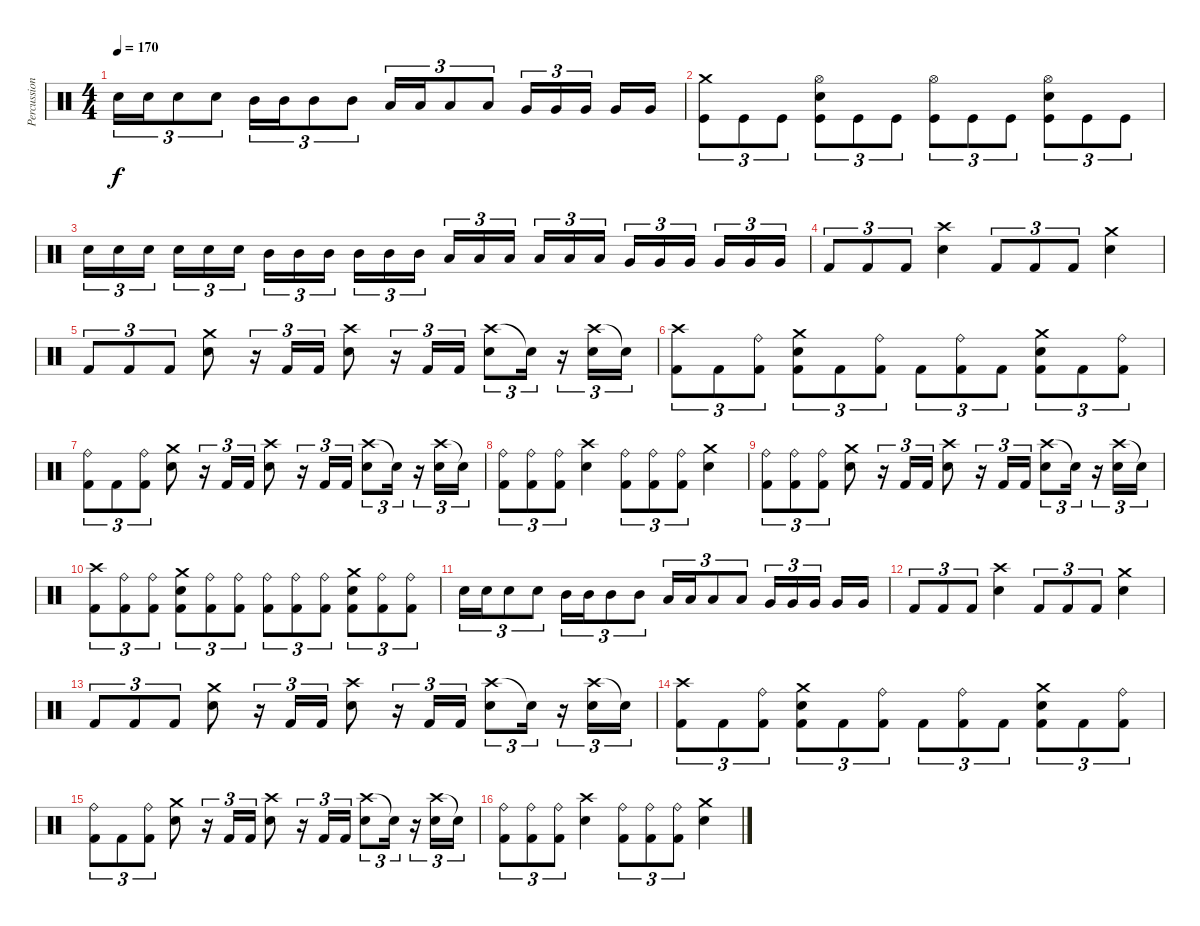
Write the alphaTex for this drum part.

\track ("Percussions" "Percussion") {instrument percussion}
\staff {score}
\articulation defaults
\ts (4 4)
\tempo 170
\clef neutral
\ks c "Electric Snare (hit)".16{tu (3 2) dy f} "Electric Snare (hit)".16{tu (3 2)} "Electric Snare (hit)".8{tu (3 2)} "Electric Snare (hit)".8{tu (3 2)} "Mid Tom (hit)".16{tu (3 2)} "Mid Tom (hit)".16{tu (3 2)} "Mid Tom (hit)".8{tu (3 2)} "Mid Tom (hit)".8{tu (3 2)} "Low Tom (hit)".16{tu (3 2)} "Low Tom (hit)".16{tu (3 2)} "Low Tom (hit)".8{tu (3 2)} "Low Tom (hit)".8{tu (3 2)} "Very Low Tom (hit)".16{tu (3 2)} "Very Low Tom (hit)".16{tu (3 2)} "Very Low Tom (hit)".16{tu (3 2)} "Very Low Tom (hit)".16 "Very Low Tom (hit)".16
|
("Crash medium (hit)" "Kick (hit)").8{tu (3 2)} "Kick (hit)".8{tu (3 2)} "Kick (hit)".8{tu (3 2)} ("Hi-Hat (open)" "Electric Snare (hit)" "Kick (hit)").8{tu (3 2)} "Kick (hit)".8{tu (3 2)} "Kick (hit)".8{tu (3 2)} ("Hi-Hat (open)" "Kick (hit)").8{tu (3 2)} "Kick (hit)".8{tu (3 2)} "Kick (hit)".8{tu (3 2)} ("Hi-Hat (open)" "Electric Snare (hit)" "Kick (hit)").8{tu (3 2)} "Kick (hit)".8{tu (3 2)} "Kick (hit)".8{tu (3 2)} |
"Electric Snare (hit)".16{tu (3 2)} "Electric Snare (hit)".16{tu (3 2)} "Electric Snare (hit)".16{tu (3 2)} "Electric Snare (hit)".16{tu (3 2)} "Electric Snare (hit)".16{tu (3 2)} "Electric Snare (hit)".16{tu (3 2)} "Mid Tom (hit)".16{tu (3 2)} "Mid Tom (hit)".16{tu (3 2)} "Mid Tom (hit)".16{tu (3 2)} "Mid Tom (hit)".16{tu (3 2)} "Mid Tom (hit)".16{tu (3 2)} "Mid Tom (hit)".16{tu (3 2)} "Low Tom (hit)".16{tu (3 2)} "Low Tom (hit)".16{tu (3 2)} "Low Tom (hit)".16{tu (3 2)} "Low Tom (hit)".16{tu (3 2)} "Low Tom (hit)".16{tu (3 2)} "Low Tom (hit)".16{tu (3 2)} "Very Low Tom (hit)".16{tu (3 2)} "Very Low Tom (hit)".16{tu (3 2)} "Very Low Tom (hit)".16{tu (3 2)} "Very Low Tom (hit)".16{tu (3 2)} "Very Low Tom (hit)".16{tu (3 2)} "Very Low Tom (hit)".16{tu (3 2)} |
"Kick (hit) 2".8{tu (3 2)} "Kick (hit) 2".8{tu (3 2)} "Kick (hit) 2".8{tu (3 2)} ("Crash high (hit)" "Electric Snare (hit)").4 "Kick (hit) 2".8{tu (3 2)} "Kick (hit) 2".8{tu (3 2)} "Kick (hit) 2".8{tu (3 2)} ("Crash medium (hit)" "Electric Snare (hit)").4 |
"Kick (hit) 2".8{tu (3 2)} "Kick (hit) 2".8{tu (3 2)} "Kick (hit) 2".8{tu (3 2)} ("Crash medium (hit)" "Electric Snare (hit)").8 r.16{tu (3 2)} "Kick (hit) 2".16{tu (3 2)} "Kick (hit) 2".16{tu (3 2)} ("Crash high (hit)" "Electric Snare (hit)").8 r.16{tu (3 2)} "Kick (hit) 2".16{tu (3 2)} "Kick (hit) 2".16{tu (3 2)} ("Crash high (hit)" "Electric Snare (hit)").8{tu (3 2)} "Electric Snare (hit)"{t}.16{tu (3 2)} r.16{tu (3 2)} ("Crash high (hit)" "Electric Snare (hit)").16{tu (3 2)} "Snare (hit)"{t}.16{tu (3 2)} |
("Crash high (hit)" "Kick (hit) 2").8{tu (3 2)} "Kick (hit) 2".8{tu (3 2)} ("Ride (bell)" "Kick (hit) 2").8{tu (3 2)} ("Crash medium (hit)" "Electric Snare (hit)" "Kick (hit) 2").8{tu (3 2)} "Kick (hit) 2".8{tu (3 2)} ("Ride (bell)" "Kick (hit) 2").8{tu (3 2)} "Kick (hit) 2".8{tu (3 2)} ("Ride (bell)" "Kick (hit) 2").8{tu (3 2)} "Kick (hit) 2".8{tu (3 2)} ("Crash medium (hit)" "Electric Snare (hit)" "Kick (hit) 2").8{tu (3 2)} "Kick (hit) 2".8{tu (3 2)} ("Ride (bell)" "Kick (hit) 2").8{tu (3 2)} |
("Ride (bell)" "Kick (hit) 2").8{tu (3 2)} "Kick (hit) 2".8{tu (3 2)} ("Ride (bell)" "Kick (hit) 2").8{tu (3 2)} ("Crash medium (hit)" "Electric Snare (hit)").8 r.16{tu (3 2)} "Kick (hit) 2".16{tu (3 2)} "Kick (hit) 2".16{tu (3 2)} ("Crash high (hit)" "Electric Snare (hit)").8 r.16{tu (3 2)} "Kick (hit) 2".16{tu (3 2)} "Kick (hit) 2".16{tu (3 2)} ("Crash high (hit)" "Electric Snare (hit)").8{tu (3 2)} "Electric Snare (hit)"{t}.16{tu (3 2)} r.16{tu (3 2)} ("Crash high (hit)" "Electric Snare (hit)").16{tu (3 2)} "Snare (hit)"{t}.16{tu (3 2)} |
("Ride (bell)" "Kick (hit) 2").8{tu (3 2)} ("Ride (bell)" "Kick (hit) 2").8{tu (3 2)} ("Ride (bell)" "Kick (hit) 2").8{tu (3 2)} ("Crash high (hit)" "Electric Snare (hit)").4 ("Ride (bell)" "Kick (hit) 2").8{tu (3 2)} ("Ride (bell)" "Kick (hit) 2").8{tu (3 2)} ("Ride (bell)" "Kick (hit) 2").8{tu (3 2)} ("Crash medium (hit)" "Electric Snare (hit)").4 |
("Ride (bell)" "Kick (hit) 2").8{tu (3 2)} ("Ride (bell)" "Kick (hit) 2").8{tu (3 2)} ("Ride (bell)" "Kick (hit) 2").8{tu (3 2)} ("Crash medium (hit)" "Electric Snare (hit)").8 r.16{tu (3 2)} "Kick (hit) 2".16{tu (3 2)} "Kick (hit) 2".16{tu (3 2)} ("Crash high (hit)" "Electric Snare (hit)").8 r.16{tu (3 2)} "Kick (hit) 2".16{tu (3 2)} "Kick (hit) 2".16{tu (3 2)} ("Crash high (hit)" "Electric Snare (hit)").8{tu (3 2)} "Electric Snare (hit)"{t}.16{tu (3 2)} r.16{tu (3 2)} ("Crash high (hit)" "Electric Snare (hit)").16{tu (3 2)} "Snare (hit)"{t}.16{tu (3 2)} |
("Crash high (hit)" "Kick (hit) 2").8{tu (3 2)} ("Ride (bell)" "Kick (hit) 2").8{tu (3 2)} ("Ride (bell)" "Kick (hit) 2").8{tu (3 2)} ("Crash medium (hit)" "Electric Snare (hit)" "Kick (hit) 2").8{tu (3 2)} ("Ride (bell)" "Kick (hit) 2").8{tu (3 2)} ("Ride (bell)" "Kick (hit) 2").8{tu (3 2)} ("Ride (bell)" "Kick (hit) 2").8{tu (3 2)} ("Ride (bell)" "Kick (hit) 2").8{tu (3 2)} ("Ride (bell)" "Kick (hit) 2").8{tu (3 2)} ("Crash medium (hit)" "Electric Snare (hit)" "Kick (hit) 2").8{tu (3 2)} ("Ride (bell)" "Kick (hit) 2").8{tu (3 2)} ("Ride (bell)" "Kick (hit) 2").8{tu (3 2)} |
"Electric Snare (hit)".16{tu (3 2)} "Electric Snare (hit)".16{tu (3 2)} "Electric Snare (hit)".8{tu (3 2)} "Electric Snare (hit)".8{tu (3 2)} "Mid Tom (hit)".16{tu (3 2)} "Mid Tom (hit)".16{tu (3 2)} "Mid Tom (hit)".8{tu (3 2)} "Mid Tom (hit)".8{tu (3 2)} "Low Tom (hit)".16{tu (3 2)} "Low Tom (hit)".16{tu (3 2)} "Low Tom (hit)".8{tu (3 2)} "Low Tom (hit)".8{tu (3 2)} "Very Low Tom (hit)".16{tu (3 2)} "Very Low Tom (hit)".16{tu (3 2)} "Very Low Tom (hit)".16{tu (3 2)} "Very Low Tom (hit)".16 "Very Low Tom (hit)".16 |
"Kick (hit) 2".8{tu (3 2)} "Kick (hit) 2".8{tu (3 2)} "Kick (hit) 2".8{tu (3 2)} ("Crash high (hit)" "Electric Snare (hit)").4 "Kick (hit) 2".8{tu (3 2)} "Kick (hit) 2".8{tu (3 2)} "Kick (hit) 2".8{tu (3 2)} ("Crash medium (hit)" "Electric Snare (hit)").4 |
"Kick (hit) 2".8{tu (3 2)} "Kick (hit) 2".8{tu (3 2)} "Kick (hit) 2".8{tu (3 2)} ("Crash medium (hit)" "Electric Snare (hit)").8 r.16{tu (3 2)} "Kick (hit) 2".16{tu (3 2)} "Kick (hit) 2".16{tu (3 2)} ("Crash high (hit)" "Electric Snare (hit)").8 r.16{tu (3 2)} "Kick (hit) 2".16{tu (3 2)} "Kick (hit) 2".16{tu (3 2)} ("Crash high (hit)" "Electric Snare (hit)").8{tu (3 2)} "Electric Snare (hit)"{t}.16{tu (3 2)} r.16{tu (3 2)} ("Crash high (hit)" "Electric Snare (hit)").16{tu (3 2)} "Snare (hit)"{t}.16{tu (3 2)} |
("Crash high (hit)" "Kick (hit) 2").8{tu (3 2)} "Kick (hit) 2".8{tu (3 2)} ("Ride (bell)" "Kick (hit) 2").8{tu (3 2)} ("Crash medium (hit)" "Electric Snare (hit)" "Kick (hit) 2").8{tu (3 2)} "Kick (hit) 2".8{tu (3 2)} ("Ride (bell)" "Kick (hit) 2").8{tu (3 2)} "Kick (hit) 2".8{tu (3 2)} ("Ride (bell)" "Kick (hit) 2").8{tu (3 2)} "Kick (hit) 2".8{tu (3 2)} ("Crash medium (hit)" "Electric Snare (hit)" "Kick (hit) 2").8{tu (3 2)} "Kick (hit) 2".8{tu (3 2)} ("Ride (bell)" "Kick (hit) 2").8{tu (3 2)} |
("Ride (bell)" "Kick (hit) 2").8{tu (3 2)} "Kick (hit) 2".8{tu (3 2)} ("Ride (bell)" "Kick (hit) 2").8{tu (3 2)} ("Crash medium (hit)" "Electric Snare (hit)").8 r.16{tu (3 2)} "Kick (hit) 2".16{tu (3 2)} "Kick (hit) 2".16{tu (3 2)} ("Crash high (hit)" "Electric Snare (hit)").8 r.16{tu (3 2)} "Kick (hit) 2".16{tu (3 2)} "Kick (hit) 2".16{tu (3 2)} ("Crash high (hit)" "Electric Snare (hit)").8{tu (3 2)} "Electric Snare (hit)"{t}.16{tu (3 2)} r.16{tu (3 2)} ("Crash high (hit)" "Electric Snare (hit)").16{tu (3 2)} "Snare (hit)"{t}.16{tu (3 2)} |
("Ride (bell)" "Kick (hit) 2").8{tu (3 2)} ("Ride (bell)" "Kick (hit) 2").8{tu (3 2)} ("Ride (bell)" "Kick (hit) 2").8{tu (3 2)} ("Crash high (hit)" "Electric Snare (hit)").4 ("Ride (bell)" "Kick (hit) 2").8{tu (3 2)} ("Ride (bell)" "Kick (hit) 2").8{tu (3 2)} ("Ride (bell)" "Kick (hit) 2").8{tu (3 2)} ("Crash medium (hit)" "Electric Snare (hit)").4
